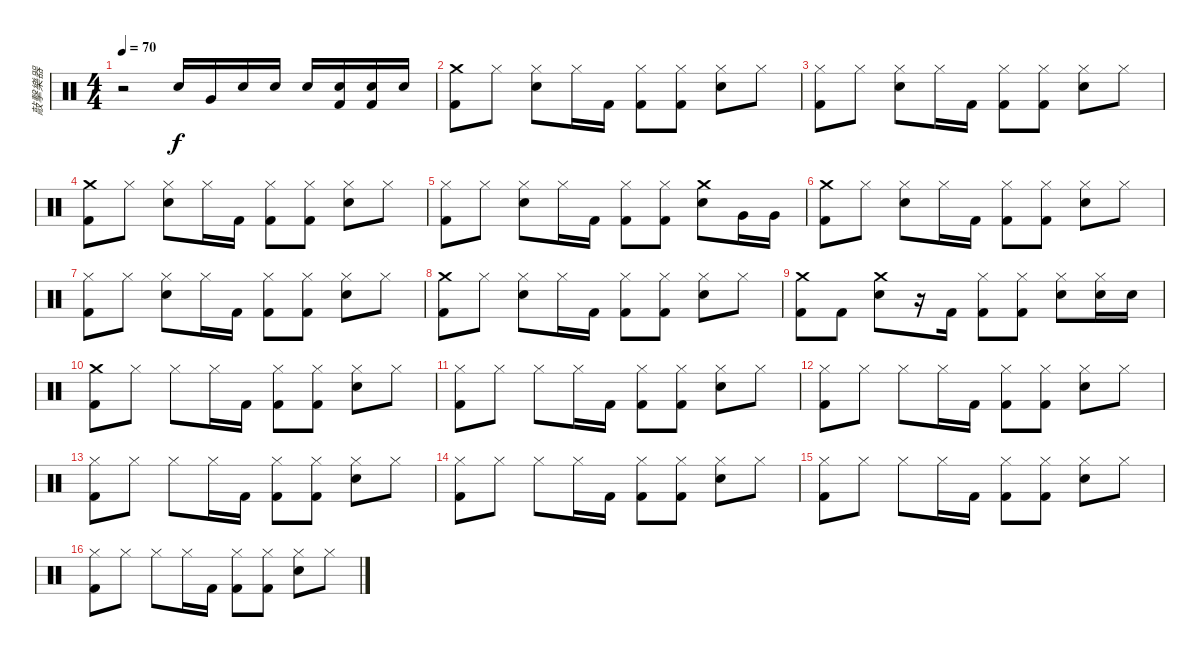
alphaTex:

\track ("敲擊樂器" "敲擊樂器") {instrument percussion}
\staff {score}
\articulation defaults
\ts (4 4)
\tempo 70
\clef neutral
\ks c
r.2{dy f} "Snare (hit) 2".16 "Very Low Tom (hit)".16 "Snare (hit) 2".16 "Snare (hit) 2".16 "Snare (hit) 2".16 ("Snare (hit) 2" "Kick (hit) 2").16 ("Snare (hit) 2" "Kick (hit) 2").16 "Snare (hit) 2".16 |
("Crash medium (hit)" "Kick (hit) 2").8 "Hi-Hat (closed)".8 ("Hi-Hat (closed)" "Snare (hit) 2").8 "Hi-Hat (closed)".16 "Kick (hit) 2".16 ("Hi-Hat (closed)" "Kick (hit) 2").8 ("Hi-Hat (closed)" "Kick (hit) 2").8 ("Hi-Hat (closed)" "Snare (hit) 2").8 "Hi-Hat (closed)".8 |
("Hi-Hat (closed)" "Kick (hit) 2").8 "Hi-Hat (closed)".8 ("Hi-Hat (closed)" "Snare (hit) 2").8 "Hi-Hat (closed)".16 "Kick (hit) 2".16 ("Hi-Hat (closed)" "Kick (hit) 2").8 ("Hi-Hat (closed)" "Kick (hit) 2").8 ("Hi-Hat (closed)" "Snare (hit) 2").8 "Hi-Hat (closed)".8 |
("Crash medium (hit)" "Kick (hit) 2").8 "Hi-Hat (closed)".8 ("Hi-Hat (closed)" "Snare (hit) 2").8 "Hi-Hat (closed)".16 "Kick (hit) 2".16 ("Hi-Hat (closed)" "Kick (hit) 2").8 ("Hi-Hat (closed)" "Kick (hit) 2").8 ("Hi-Hat (closed)" "Snare (hit) 2").8 "Hi-Hat (closed)".8 |
("Hi-Hat (closed)" "Kick (hit) 2").8 "Hi-Hat (closed)".8 ("Hi-Hat (closed)" "Snare (hit) 2").8 "Hi-Hat (closed)".16 "Kick (hit) 2".16 ("Hi-Hat (closed)" "Kick (hit) 2").8 ("Hi-Hat (closed)" "Kick (hit) 2").8 ("Crash medium (hit)" "Snare (hit) 2").8 "Very Low Tom (hit)".16 "Very Low Tom (hit)".16 |
("Crash medium (hit)" "Kick (hit) 2").8 "Hi-Hat (closed)".8 ("Hi-Hat (closed)" "Snare (hit) 2").8 "Hi-Hat (closed)".16 "Kick (hit) 2".16 ("Hi-Hat (closed)" "Kick (hit) 2").8 ("Hi-Hat (closed)" "Kick (hit) 2").8 ("Hi-Hat (closed)" "Snare (hit) 2").8 "Hi-Hat (closed)".8 |
("Hi-Hat (closed)" "Kick (hit) 2").8 "Hi-Hat (closed)".8 ("Hi-Hat (closed)" "Snare (hit) 2").8 "Hi-Hat (closed)".16 "Kick (hit) 2".16 ("Hi-Hat (closed)" "Kick (hit) 2").8 ("Hi-Hat (closed)" "Kick (hit) 2").8 ("Hi-Hat (closed)" "Snare (hit) 2").8 "Hi-Hat (closed)".8 |
("Crash medium (hit)" "Kick (hit) 2").8 "Hi-Hat (closed)".8 ("Hi-Hat (closed)" "Snare (hit) 2").8 "Hi-Hat (closed)".16 "Kick (hit) 2".16 ("Hi-Hat (closed)" "Kick (hit) 2").8 ("Hi-Hat (closed)" "Kick (hit) 2").8 ("Hi-Hat (closed)" "Snare (hit) 2").8 "Hi-Hat (closed)".8 |
("Crash medium (hit)" "Kick (hit) 2").8 "Kick (hit) 2".8 ("Crash medium (hit)" "Snare (hit) 2").8 r.16 "Kick (hit) 2".16 ("Hi-Hat (closed)" "Kick (hit) 2").8 ("Hi-Hat (closed)" "Kick (hit) 2").8 ("Hi-Hat (closed)" "Snare (hit) 2").8 ("Hi-Hat (closed)" "Snare (hit) 2").16 "Snare (hit) 2".16 |
("Crash medium (hit)" "Kick (hit) 2").8 "Hi-Hat (closed)".8 "Hi-Hat (closed)".8 "Hi-Hat (closed)".16 "Kick (hit) 2".16 ("Hi-Hat (closed)" "Kick (hit) 2").8 ("Hi-Hat (closed)" "Kick (hit) 2").8 ("Hi-Hat (closed)" "Snare (hit) 2").8 "Hi-Hat (closed)".8 |
("Hi-Hat (closed)" "Kick (hit) 2").8 "Hi-Hat (closed)".8 "Hi-Hat (closed)".8 "Hi-Hat (closed)".16 "Kick (hit) 2".16 ("Hi-Hat (closed)" "Kick (hit) 2").8 ("Hi-Hat (closed)" "Kick (hit) 2").8 ("Hi-Hat (closed)" "Snare (hit) 2").8 "Hi-Hat (closed)".8 |
("Hi-Hat (closed)" "Kick (hit) 2").8 "Hi-Hat (closed)".8 "Hi-Hat (closed)".8 "Hi-Hat (closed)".16 "Kick (hit) 2".16 ("Hi-Hat (closed)" "Kick (hit) 2").8 ("Hi-Hat (closed)" "Kick (hit) 2").8 ("Hi-Hat (closed)" "Snare (hit) 2").8 "Hi-Hat (closed)".8 |
("Hi-Hat (closed)" "Kick (hit) 2").8 "Hi-Hat (closed)".8 "Hi-Hat (closed)".8 "Hi-Hat (closed)".16 "Kick (hit) 2".16 ("Hi-Hat (closed)" "Kick (hit) 2").8 ("Hi-Hat (closed)" "Kick (hit) 2").8 ("Hi-Hat (closed)" "Snare (hit) 2").8 "Hi-Hat (closed)".8 |
("Hi-Hat (closed)" "Kick (hit) 2").8 "Hi-Hat (closed)".8 "Hi-Hat (closed)".8 "Hi-Hat (closed)".16 "Kick (hit) 2".16 ("Hi-Hat (closed)" "Kick (hit) 2").8 ("Hi-Hat (closed)" "Kick (hit) 2").8 ("Hi-Hat (closed)" "Snare (hit) 2").8 "Hi-Hat (closed)".8 |
("Hi-Hat (closed)" "Kick (hit) 2").8 "Hi-Hat (closed)".8 "Hi-Hat (closed)".8 "Hi-Hat (closed)".16 "Kick (hit) 2".16 ("Hi-Hat (closed)" "Kick (hit) 2").8 ("Hi-Hat (closed)" "Kick (hit) 2").8 ("Hi-Hat (closed)" "Snare (hit) 2").8 "Hi-Hat (closed)".8 |
("Hi-Hat (closed)" "Kick (hit) 2").8 "Hi-Hat (closed)".8 "Hi-Hat (closed)".8 "Hi-Hat (closed)".16 "Kick (hit) 2".16 ("Hi-Hat (closed)" "Kick (hit) 2").8 ("Hi-Hat (closed)" "Kick (hit) 2").8 ("Hi-Hat (closed)" "Snare (hit) 2").8 "Hi-Hat (closed)".8
